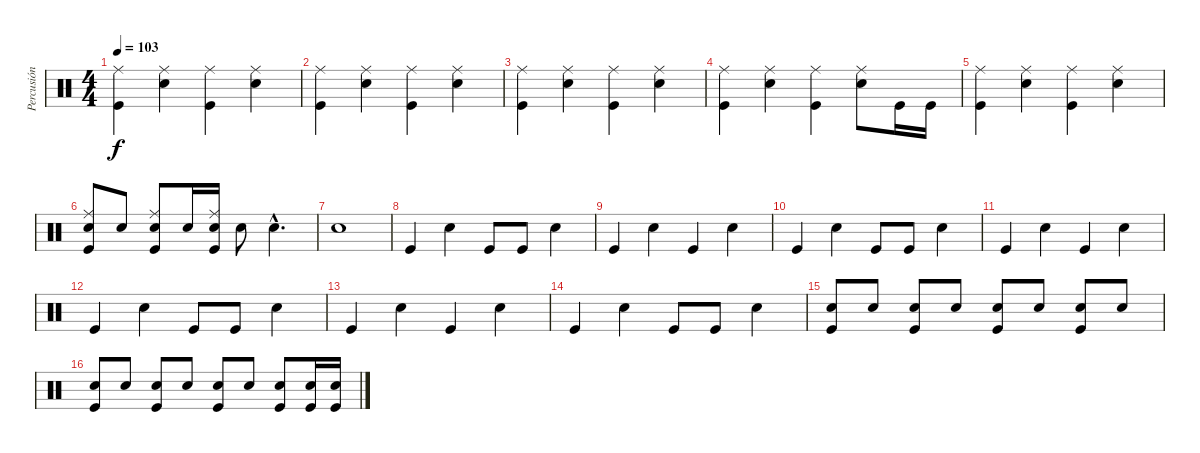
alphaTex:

\track ("Percusión" "Percusión") {instrument percussion}
\staff {score}
\articulation defaults
\ts (4 4)
\tempo 103
\clef neutral
\ks c
("Kick (hit)" "Ride (middle)").4{dy f} ("Electric Snare (hit)" "Ride (middle)").4 ("Kick (hit)" "Ride (middle)").4 ("Electric Snare (hit)" "Ride (middle)").4 |
("Kick (hit)" "Ride (middle)").4 ("Electric Snare (hit)" "Ride (middle)").4 ("Kick (hit)" "Ride (middle)").4 ("Electric Snare (hit)" "Ride (middle)").4 |
("Kick (hit)" "Ride (middle)").4 ("Electric Snare (hit)" "Ride (middle)").4 ("Kick (hit)" "Ride (middle)").4 ("Electric Snare (hit)" "Ride (middle)").4 |
("Kick (hit)" "Ride (middle)").4 ("Electric Snare (hit)" "Ride (middle)").4 ("Kick (hit)" "Ride (middle)").4 ("Electric Snare (hit)" "Ride (middle)").8 "Kick (hit)".16 "Kick (hit)".16 |
("Kick (hit)" "Ride (middle)").4 ("Electric Snare (hit)" "Ride (middle)").4 ("Kick (hit)" "Ride (middle)").4 ("Electric Snare (hit)" "Ride (middle)").4 |
("Electric Snare (hit)" "Kick (hit)" "Ride (middle)").8 "Electric Snare (hit)".8 ("Electric Snare (hit)" "Kick (hit)" "Ride (middle)").8 "Electric Snare (hit)".16 ("Electric Snare (hit)" "Kick (hit)" "Ride (middle)").16 "Electric Snare (hit)".8 "Electric Snare (hit)"{hac}.4{d} |
"Electric Snare (hit)".1 |
"Kick (hit)".4 "Electric Snare (hit)".4 "Kick (hit)".8 "Kick (hit)".8 "Electric Snare (hit)".4 |
"Kick (hit)".4 "Electric Snare (hit)".4 "Kick (hit)".4 "Electric Snare (hit)".4 |
"Kick (hit)".4 "Electric Snare (hit)".4 "Kick (hit)".8 "Kick (hit)".8 "Electric Snare (hit)".4 |
"Kick (hit)".4 "Electric Snare (hit)".4 "Kick (hit)".4 "Electric Snare (hit)".4 |
"Kick (hit)".4 "Electric Snare (hit)".4 "Kick (hit)".8 "Kick (hit)".8 "Electric Snare (hit)".4 |
"Kick (hit)".4 "Electric Snare (hit)".4 "Kick (hit)".4 "Electric Snare (hit)".4 |
"Kick (hit)".4 "Electric Snare (hit)".4 "Kick (hit)".8 "Kick (hit)".8 "Electric Snare (hit)".4 |
("Electric Snare (hit)" "Kick (hit)").8{volume 7} "Electric Snare (hit)".8{volume 13} ("Electric Snare (hit)" "Kick (hit)").8 "Electric Snare (hit)".8 ("Electric Snare (hit)" "Kick (hit)").8 "Electric Snare (hit)".8 ("Electric Snare (hit)" "Kick (hit)").8 "Electric Snare (hit)".8 |
("Electric Snare (hit)" "Kick (hit)").8 "Electric Snare (hit)".8 ("Electric Snare (hit)" "Kick (hit)").8 "Electric Snare (hit)".8 ("Electric Snare (hit)" "Kick (hit)").8 "Electric Snare (hit)".8 ("Electric Snare (hit)" "Kick (hit)").8 ("Electric Snare (hit)" "Kick (hit)").16 ("Electric Snare (hit)" "Kick (hit)").16
